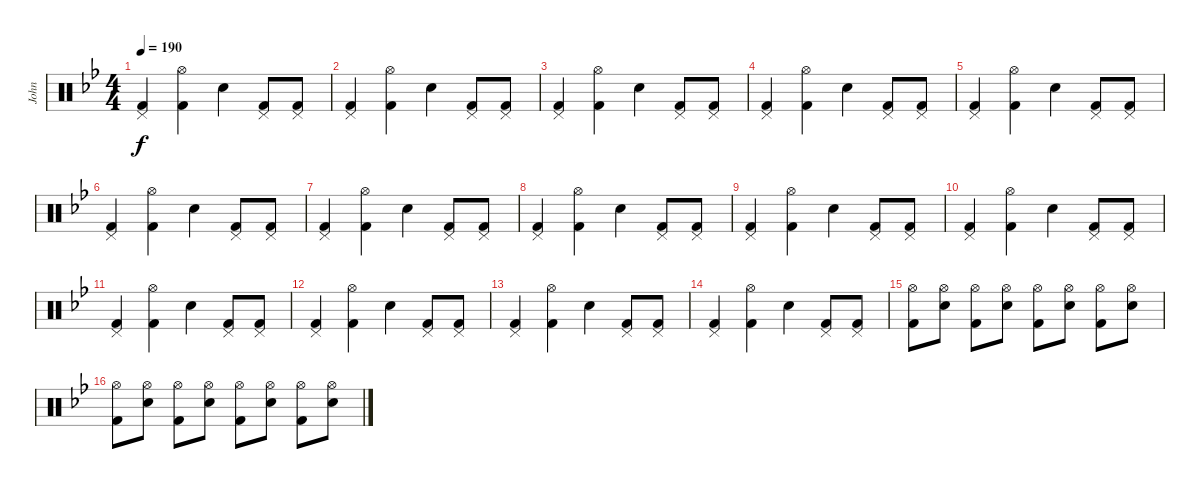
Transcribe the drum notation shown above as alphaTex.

\track ("John" "John") {instrument percussion}
\staff {score}
\articulation defaults
\ts (4 4)
\tempo 190
\clef neutral
\ks bb
("Pedal Hi-Hat (hit)" "Kick (hit) 2").4{dy f} ("Hi-Hat (open)" "Kick (hit) 2").4 "Electric Snare (hit)".4 ("Pedal Hi-Hat (hit)" "Kick (hit) 2").8 ("Pedal Hi-Hat (hit)" "Kick (hit) 2").8 |
("Pedal Hi-Hat (hit)" "Kick (hit) 2").4 ("Hi-Hat (open)" "Kick (hit) 2").4 "Electric Snare (hit)".4 ("Pedal Hi-Hat (hit)" "Kick (hit) 2").8 ("Pedal Hi-Hat (hit)" "Kick (hit) 2").8 |
("Pedal Hi-Hat (hit)" "Kick (hit) 2").4 ("Hi-Hat (open)" "Kick (hit) 2").4 "Electric Snare (hit)".4 ("Pedal Hi-Hat (hit)" "Kick (hit) 2").8 ("Pedal Hi-Hat (hit)" "Kick (hit) 2").8 |
("Pedal Hi-Hat (hit)" "Kick (hit) 2").4 ("Hi-Hat (open)" "Kick (hit) 2").4 "Electric Snare (hit)".4 ("Pedal Hi-Hat (hit)" "Kick (hit) 2").8 ("Pedal Hi-Hat (hit)" "Kick (hit) 2").8 |
("Pedal Hi-Hat (hit)" "Kick (hit) 2").4 ("Hi-Hat (open)" "Kick (hit) 2").4 "Electric Snare (hit)".4 ("Pedal Hi-Hat (hit)" "Kick (hit) 2").8 ("Pedal Hi-Hat (hit)" "Kick (hit) 2").8 |
("Pedal Hi-Hat (hit)" "Kick (hit) 2").4 ("Hi-Hat (open)" "Kick (hit) 2").4 "Electric Snare (hit)".4 ("Pedal Hi-Hat (hit)" "Kick (hit) 2").8 ("Pedal Hi-Hat (hit)" "Kick (hit) 2").8 |
("Pedal Hi-Hat (hit)" "Kick (hit) 2").4 ("Hi-Hat (open)" "Kick (hit) 2").4 "Electric Snare (hit)".4 ("Pedal Hi-Hat (hit)" "Kick (hit) 2").8 ("Pedal Hi-Hat (hit)" "Kick (hit) 2").8 |
("Pedal Hi-Hat (hit)" "Kick (hit) 2").4 ("Hi-Hat (open)" "Kick (hit) 2").4 "Electric Snare (hit)".4 ("Pedal Hi-Hat (hit)" "Kick (hit) 2").8 ("Pedal Hi-Hat (hit)" "Kick (hit) 2").8 |
("Pedal Hi-Hat (hit)" "Kick (hit) 2").4 ("Hi-Hat (open)" "Kick (hit) 2").4 "Electric Snare (hit)".4 ("Pedal Hi-Hat (hit)" "Kick (hit) 2").8 ("Pedal Hi-Hat (hit)" "Kick (hit) 2").8 |
("Pedal Hi-Hat (hit)" "Kick (hit) 2").4 ("Hi-Hat (open)" "Kick (hit) 2").4 "Electric Snare (hit)".4 ("Pedal Hi-Hat (hit)" "Kick (hit) 2").8 ("Pedal Hi-Hat (hit)" "Kick (hit) 2").8 |
("Pedal Hi-Hat (hit)" "Kick (hit) 2").4 ("Hi-Hat (open)" "Kick (hit) 2").4 "Electric Snare (hit)".4 ("Pedal Hi-Hat (hit)" "Kick (hit) 2").8 ("Pedal Hi-Hat (hit)" "Kick (hit) 2").8 |
("Pedal Hi-Hat (hit)" "Kick (hit) 2").4 ("Hi-Hat (open)" "Kick (hit) 2").4 "Electric Snare (hit)".4 ("Pedal Hi-Hat (hit)" "Kick (hit) 2").8 ("Pedal Hi-Hat (hit)" "Kick (hit) 2").8 |
("Pedal Hi-Hat (hit)" "Kick (hit) 2").4 ("Hi-Hat (open)" "Kick (hit) 2").4 "Electric Snare (hit)".4 ("Pedal Hi-Hat (hit)" "Kick (hit) 2").8 ("Pedal Hi-Hat (hit)" "Kick (hit) 2").8 |
("Pedal Hi-Hat (hit)" "Kick (hit) 2").4 ("Hi-Hat (open)" "Kick (hit) 2").4 "Electric Snare (hit)".4 ("Pedal Hi-Hat (hit)" "Kick (hit) 2").8 ("Pedal Hi-Hat (hit)" "Kick (hit) 2").8 |
("Hi-Hat (open)" "Kick (hit) 2").8 ("Hi-Hat (open)" "Electric Snare (hit)").8 ("Hi-Hat (open)" "Kick (hit) 2").8 ("Hi-Hat (open)" "Electric Snare (hit)").8 ("Hi-Hat (open)" "Kick (hit) 2").8 ("Hi-Hat (open)" "Electric Snare (hit)").8 ("Hi-Hat (open)" "Kick (hit) 2").8 ("Hi-Hat (open)" "Electric Snare (hit)").8 |
("Hi-Hat (open)" "Kick (hit) 2").8 ("Hi-Hat (open)" "Electric Snare (hit)").8 ("Hi-Hat (open)" "Kick (hit) 2").8 ("Hi-Hat (open)" "Electric Snare (hit)").8 ("Hi-Hat (open)" "Kick (hit) 2").8 ("Hi-Hat (open)" "Electric Snare (hit)").8 ("Hi-Hat (open)" "Kick (hit) 2").8 ("Hi-Hat (open)" "Electric Snare (hit)").8
